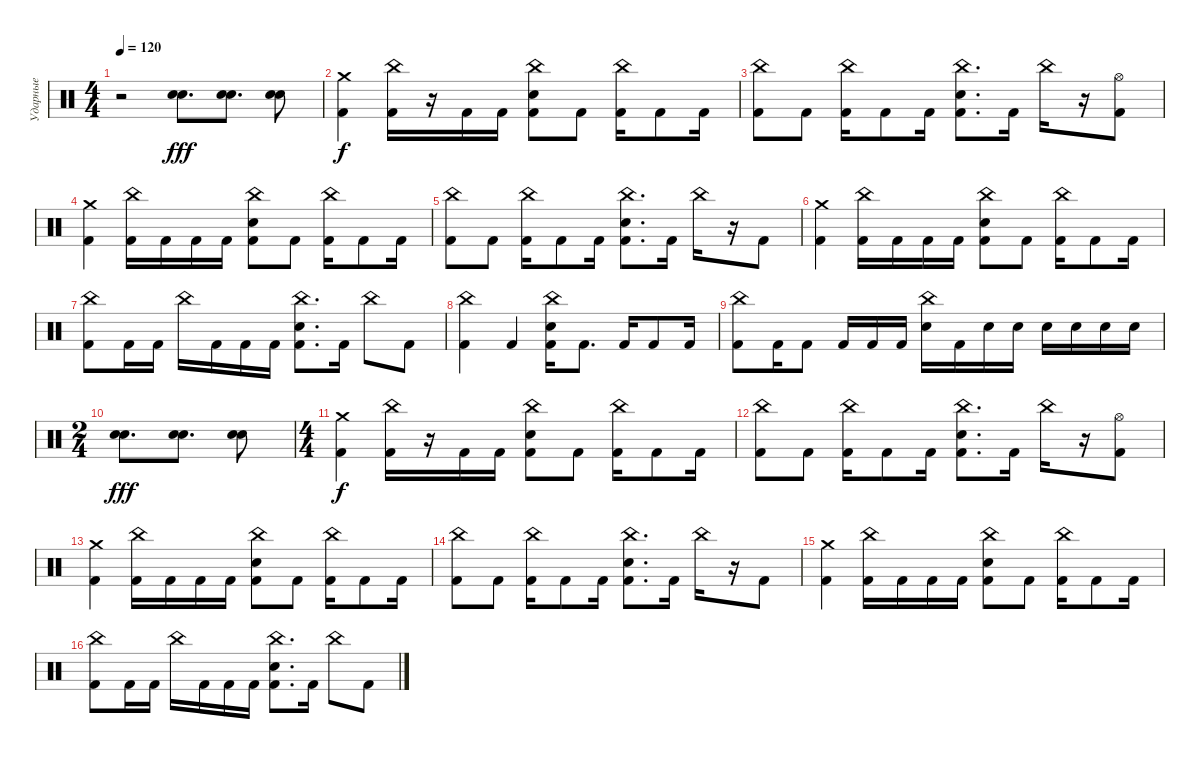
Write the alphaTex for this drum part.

\track ("Ударные" "Ударные") {instrument percussion}
\staff {score}
\articulation defaults
\ts (4 4)
\tempo 120
\clef neutral
\ks c
r.2{dy fff} ("Snare (hit) 2" "Electric Snare (hit)").8{d} ("Snare (hit) 2" "Electric Snare (hit)").8{d} ("Snare (hit) 2" "Electric Snare (hit)").8 |
("Crash medium (hit)" "Kick (hit) 2").4{dy f} ("China (hit)" "Kick (hit) 2").16 r.16 "Kick (hit) 2".16 "Kick (hit) 2".16 ("China (hit)" "Electric Snare (hit)" "Kick (hit) 2").8 "Kick (hit) 2".8 ("China (hit)" "Kick (hit) 2").16 "Kick (hit) 2".8 "Kick (hit) 2".16 |
("China (hit)" "Kick (hit) 2").8 "Kick (hit) 2".8 ("China (hit)" "Kick (hit) 2").16 "Kick (hit) 2".8 "Kick (hit) 2".16 ("China (hit)" "Electric Snare (hit)" "Kick (hit) 2").8{d} "Kick (hit) 2".16 "China (hit)".16 r.16 ("Hi-Hat (open)" "Kick (hit) 2").8 |
("Crash medium (hit)" "Kick (hit) 2").4 ("China (hit)" "Kick (hit) 2").16 "Kick (hit) 2".16 "Kick (hit) 2".16 "Kick (hit) 2".16 ("China (hit)" "Electric Snare (hit)" "Kick (hit) 2").8 "Kick (hit) 2".8 ("China (hit)" "Kick (hit) 2").16 "Kick (hit) 2".8 "Kick (hit) 2".16 |
("China (hit)" "Kick (hit) 2").8 "Kick (hit) 2".8 ("China (hit)" "Kick (hit) 2").16 "Kick (hit) 2".8 "Kick (hit) 2".16 ("China (hit)" "Electric Snare (hit)" "Kick (hit) 2").8{d} "Kick (hit) 2".16 "China (hit)".16 r.16 "Kick (hit) 2".8 |
("Crash medium (hit)" "Kick (hit) 2").4 ("China (hit)" "Kick (hit) 2").16 "Kick (hit) 2".16 "Kick (hit) 2".16 "Kick (hit) 2".16 ("China (hit)" "Electric Snare (hit)" "Kick (hit) 2").8 "Kick (hit) 2".8 ("China (hit)" "Kick (hit) 2").16 "Kick (hit) 2".8 "Kick (hit) 2".16 |
("China (hit)" "Kick (hit) 2").8 "Kick (hit) 2".16 "Kick (hit) 2".16 "China (hit)".16 "Kick (hit) 2".16 "Kick (hit) 2".16 "Kick (hit) 2".16 ("China (hit)" "Electric Snare (hit)" "Kick (hit) 2").8{d} "Kick (hit) 2".16 "China (hit)".8 "Kick (hit) 2".8 |
("China (hit)" "Kick (hit) 2").4 "Kick (hit) 2".4 ("China (hit)" "Electric Snare (hit)" "Kick (hit) 2").16 "Kick (hit) 2".8{d} "Kick (hit) 2".16 "Kick (hit) 2".8 "Kick (hit) 2".16 |
("China (hit)" "Kick (hit) 2").8 "Kick (hit) 2".16 "Kick (hit) 2".8 "Kick (hit) 2".16 "Kick (hit) 2".16 "Kick (hit) 2".16 ("China (hit)" "Electric Snare (hit)").16 "Kick (hit) 2".16 "Electric Snare (hit)".16 "Electric Snare (hit)".16 "Electric Snare (hit)".16 "Electric Snare (hit)".16 "Electric Snare (hit)".16 "Electric Snare (hit)".16 |
\ts (2 4)
("Snare (hit) 2" "Electric Snare (hit)").8{d dy fff} ("Snare (hit) 2" "Electric Snare (hit)").8{d} ("Snare (hit) 2" "Electric Snare (hit)").8 |
\ts (4 4)
("Crash medium (hit)" "Kick (hit) 2").4{dy f} ("China (hit)" "Kick (hit) 2").16 r.16 "Kick (hit) 2".16 "Kick (hit) 2".16 ("China (hit)" "Electric Snare (hit)" "Kick (hit) 2").8 "Kick (hit) 2".8 ("China (hit)" "Kick (hit) 2").16 "Kick (hit) 2".8 "Kick (hit) 2".16 |
("China (hit)" "Kick (hit) 2").8 "Kick (hit) 2".8 ("China (hit)" "Kick (hit) 2").16 "Kick (hit) 2".8 "Kick (hit) 2".16 ("China (hit)" "Electric Snare (hit)" "Kick (hit) 2").8{d} "Kick (hit) 2".16 "China (hit)".16 r.16 ("Hi-Hat (open)" "Kick (hit) 2").8 |
("Crash medium (hit)" "Kick (hit) 2").4 ("China (hit)" "Kick (hit) 2").16 "Kick (hit) 2".16 "Kick (hit) 2".16 "Kick (hit) 2".16 ("China (hit)" "Electric Snare (hit)" "Kick (hit) 2").8 "Kick (hit) 2".8 ("China (hit)" "Kick (hit) 2").16 "Kick (hit) 2".8 "Kick (hit) 2".16 |
("China (hit)" "Kick (hit) 2").8 "Kick (hit) 2".8 ("China (hit)" "Kick (hit) 2").16 "Kick (hit) 2".8 "Kick (hit) 2".16 ("China (hit)" "Electric Snare (hit)" "Kick (hit) 2").8{d} "Kick (hit) 2".16 "China (hit)".16 r.16 "Kick (hit) 2".8 |
("Crash medium (hit)" "Kick (hit) 2").4 ("China (hit)" "Kick (hit) 2").16 "Kick (hit) 2".16 "Kick (hit) 2".16 "Kick (hit) 2".16 ("China (hit)" "Electric Snare (hit)" "Kick (hit) 2").8 "Kick (hit) 2".8 ("China (hit)" "Kick (hit) 2").16 "Kick (hit) 2".8 "Kick (hit) 2".16 |
("China (hit)" "Kick (hit) 2").8 "Kick (hit) 2".16 "Kick (hit) 2".16 "China (hit)".16 "Kick (hit) 2".16 "Kick (hit) 2".16 "Kick (hit) 2".16 ("China (hit)" "Electric Snare (hit)" "Kick (hit) 2").8{d} "Kick (hit) 2".16 "China (hit)".8 "Kick (hit) 2".8
